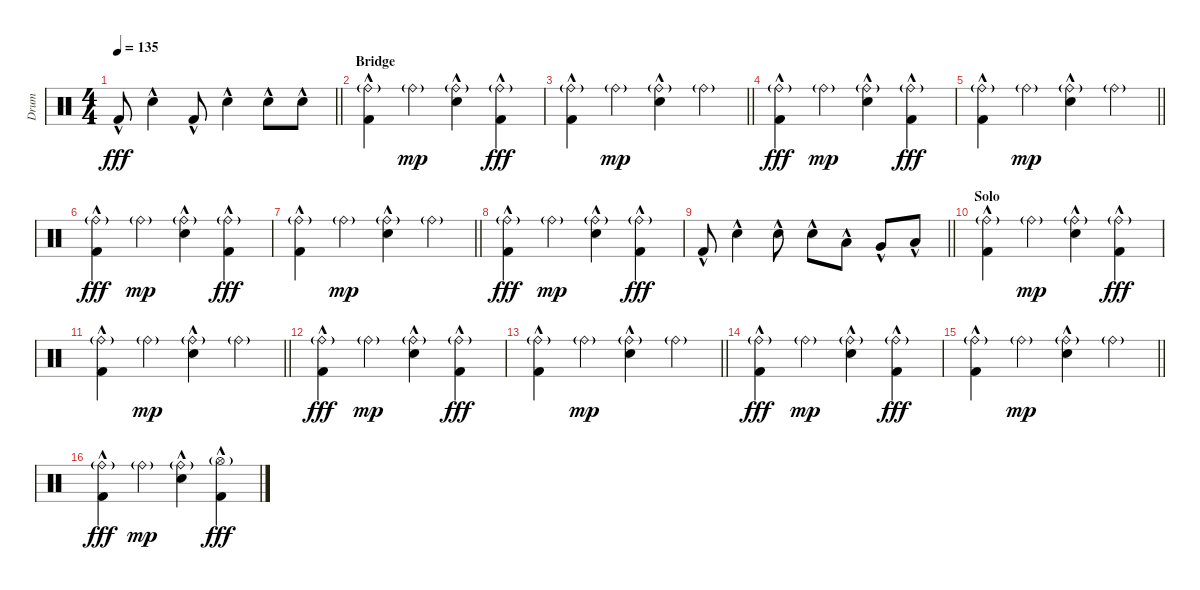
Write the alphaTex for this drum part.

\track ("Drum" "Drum") {instrument percussion}
\staff {score}
\articulation defaults
\ts (4 4)
\tempo 135
\clef neutral
\barLineRight lightlight
\ks c "Kick (hit) 2"{hac}.8{dy fff} "Electric Snare (hit)"{hac}.4 "Kick (hit) 2"{hac}.8 "Electric Snare (hit)"{hac}.4 "Electric Snare (hit)"{hac}.8 "Electric Snare (hit)"{hac}.8
|
\section ("" "Bridge")
("Ride (bell)"{g} "Kick (hit) 2"{hac}).4 "Ride (bell)"{g}.4{dy mp} ("Electric Snare (hit)"{hac} "Ride (bell)"{g}).4 ("Ride (bell)"{g} "Kick (hit) 2"{hac}).4{dy fff} |
\barLineRight lightlight
("Ride (bell)"{g} "Kick (hit) 2"{hac}).4 "Ride (bell)"{g}.4{dy mp} ("Electric Snare (hit)"{hac} "Ride (bell)"{g}).4 "Ride (bell)"{g}.4 |
("Ride (bell)"{g} "Kick (hit) 2"{hac}).4{dy fff} "Ride (bell)"{g}.4{dy mp} ("Electric Snare (hit)"{hac} "Ride (bell)"{g}).4 ("Ride (bell)"{g} "Kick (hit) 2"{hac}).4{dy fff} |
\barLineRight lightlight
("Ride (bell)"{g} "Kick (hit) 2"{hac}).4 "Ride (bell)"{g}.4{dy mp} ("Electric Snare (hit)"{hac} "Ride (bell)"{g}).4 "Ride (bell)"{g}.4 |
("Ride (bell)"{g} "Kick (hit) 2"{hac}).4{dy fff} "Ride (bell)"{g}.4{dy mp} ("Electric Snare (hit)"{hac} "Ride (bell)"{g}).4 ("Ride (bell)"{g} "Kick (hit) 2"{hac}).4{dy fff} |
\barLineRight lightlight
("Ride (bell)"{g} "Kick (hit) 2"{hac}).4 "Ride (bell)"{g}.4{dy mp} ("Electric Snare (hit)"{hac} "Ride (bell)"{g}).4 "Ride (bell)"{g}.4 |
("Ride (bell)"{g} "Kick (hit) 2"{hac}).4{dy fff} "Ride (bell)"{g}.4{dy mp} ("Electric Snare (hit)"{hac} "Ride (bell)"{g}).4 ("Ride (bell)"{g} "Kick (hit) 2"{hac}).4{dy fff} |
\barLineRight lightlight "Kick (hit) 2"{hac}.8 "Electric Snare (hit)"{hac}.4 "Electric Snare (hit)"{hac}.8 "Electric Snare (hit)"{hac}.8 "Low Tom (hit)"{hac}.8 "Very Low Tom (hit)"{hac}.8 "Low Floor Tom (hit)"{hac}.8
|
\section ("" "Solo")
("Ride (bell)"{g} "Kick (hit) 2"{hac}).4 "Ride (bell)"{g}.4{dy mp} ("Electric Snare (hit)"{hac} "Ride (bell)"{g}).4 ("Ride (bell)"{g} "Kick (hit) 2"{hac}).4{dy fff} |
\barLineRight lightlight
("Ride (bell)"{g} "Kick (hit) 2"{hac}).4 "Ride (bell)"{g}.4{dy mp} ("Electric Snare (hit)"{hac} "Ride (bell)"{g}).4 "Ride (bell)"{g}.4 |
("Ride (bell)"{g} "Kick (hit) 2"{hac}).4{dy fff} "Ride (bell)"{g}.4{dy mp} ("Electric Snare (hit)"{hac} "Ride (bell)"{g}).4 ("Ride (bell)"{g} "Kick (hit) 2"{hac}).4{dy fff} |
\barLineRight lightlight
("Ride (bell)"{g} "Kick (hit) 2"{hac}).4 "Ride (bell)"{g}.4{dy mp} ("Electric Snare (hit)"{hac} "Ride (bell)"{g}).4 "Ride (bell)"{g}.4 |
("Ride (bell)"{g} "Kick (hit) 2"{hac}).4{dy fff} "Ride (bell)"{g}.4{dy mp} ("Electric Snare (hit)"{hac} "Ride (bell)"{g}).4 ("Ride (bell)"{g} "Kick (hit) 2"{hac}).4{dy fff} |
\barLineRight lightlight
("Ride (bell)"{g} "Kick (hit) 2"{hac}).4 "Ride (bell)"{g}.4{dy mp} ("Electric Snare (hit)"{hac} "Ride (bell)"{g}).4 "Ride (bell)"{g}.4 |
("Ride (bell)"{g} "Kick (hit) 2"{hac}).4{dy fff} "Ride (bell)"{g}.4{dy mp} ("Electric Snare (hit)"{hac} "Ride (bell)"{g}).4 ("Hi-Hat (open)"{g} "Kick (hit) 2"{hac}).4{dy fff}
